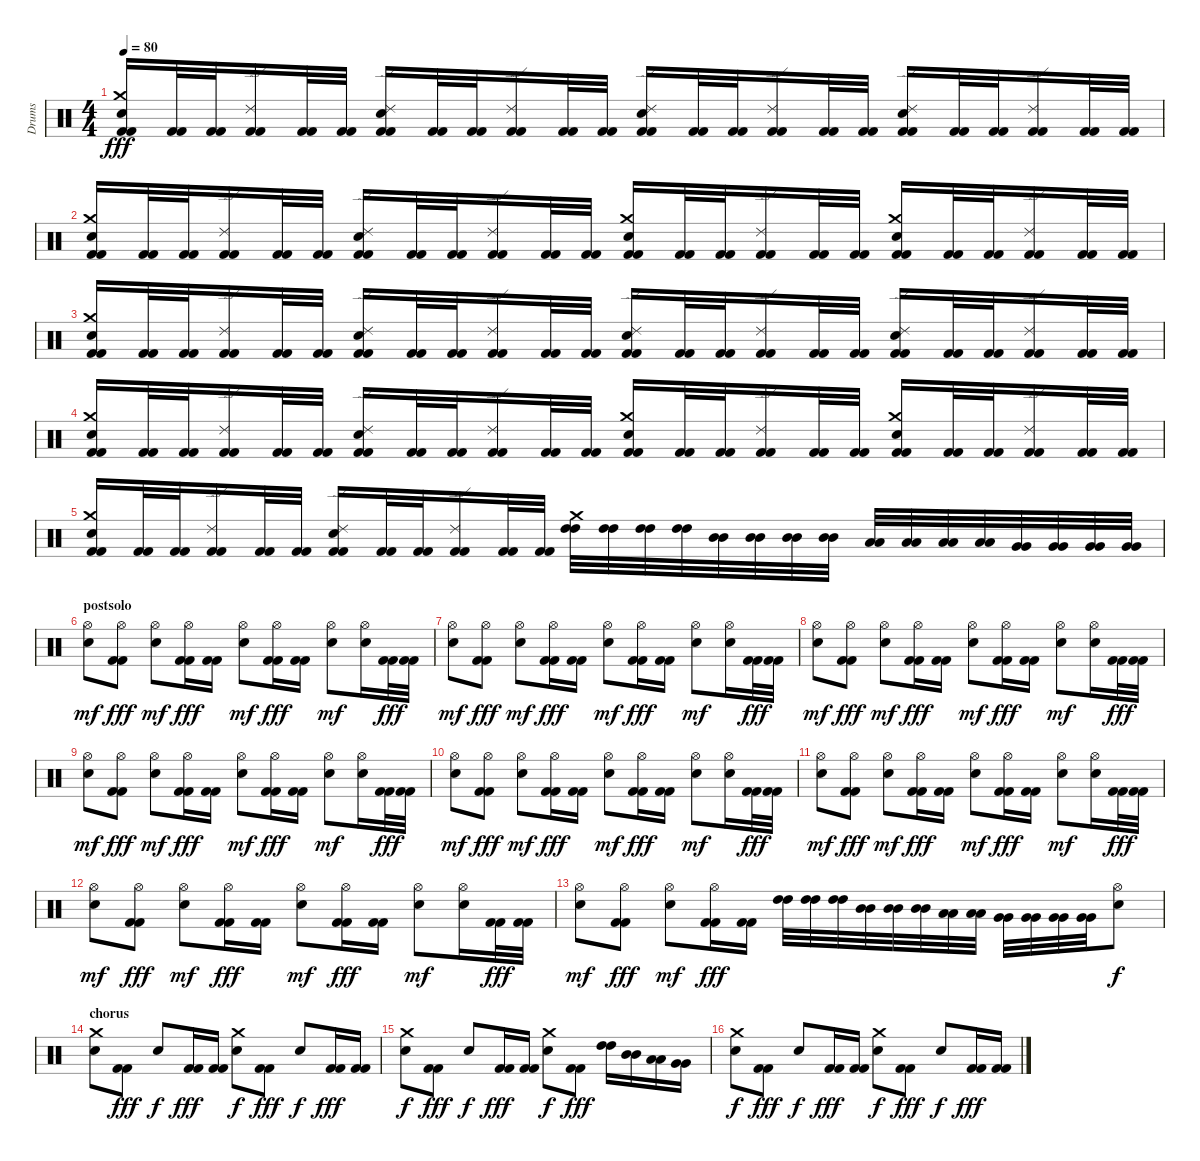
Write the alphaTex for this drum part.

\track ("Drums" "Drums") {instrument percussion}
\staff {score}
\articulation defaults
\ts (4 4)
\tempo 80
\clef neutral
\ks c
("Kick (hit) 2" "Kick (hit) 2" "Crash medium (hit)" "Electric Snare (hit)").16{dy fff} ("Kick (hit) 2" "Kick (hit) 2").32 ("Kick (hit) 2" "Kick (hit) 2").32 ("Kick (hit) 2" "Kick (hit) 2" "Ride (edge) 2").16 ("Kick (hit) 2" "Kick (hit) 2").32 ("Kick (hit) 2" "Kick (hit) 2").32 ("Kick (hit) 2" "Kick (hit) 2" "Ride (edge) 2" "Snare (hit) 2").16 ("Kick (hit) 2" "Kick (hit) 2").32 ("Kick (hit) 2" "Kick (hit) 2").32 ("Kick (hit) 2" "Kick (hit) 2" "Ride (edge) 2").16 ("Kick (hit) 2" "Kick (hit) 2").32 ("Kick (hit) 2" "Kick (hit) 2").32 ("Kick (hit) 2" "Kick (hit) 2" "Ride (edge) 2" "Snare (hit) 2").16 ("Kick (hit) 2" "Kick (hit) 2").32 ("Kick (hit) 2" "Kick (hit) 2").32 ("Kick (hit) 2" "Kick (hit) 2" "Ride (edge) 2").16 ("Kick (hit) 2" "Kick (hit) 2").32 ("Kick (hit) 2" "Kick (hit) 2").32 ("Kick (hit) 2" "Kick (hit) 2" "Ride (edge) 2" "Snare (hit) 2").16 ("Kick (hit) 2" "Kick (hit) 2").32 ("Kick (hit) 2" "Kick (hit) 2").32 ("Kick (hit) 2" "Kick (hit) 2" "Ride (edge) 2").16 ("Kick (hit) 2" "Kick (hit) 2").32 ("Kick (hit) 2" "Kick (hit) 2").32 |
("Kick (hit) 2" "Kick (hit) 2" "Crash medium (hit)" "Electric Snare (hit)").16 ("Kick (hit) 2" "Kick (hit) 2").32 ("Kick (hit) 2" "Kick (hit) 2").32 ("Kick (hit) 2" "Kick (hit) 2" "Ride (edge) 2").16 ("Kick (hit) 2" "Kick (hit) 2").32 ("Kick (hit) 2" "Kick (hit) 2").32 ("Kick (hit) 2" "Kick (hit) 2" "Ride (edge) 2" "Snare (hit) 2").16 ("Kick (hit) 2" "Kick (hit) 2").32 ("Kick (hit) 2" "Kick (hit) 2").32 ("Kick (hit) 2" "Kick (hit) 2" "Ride (edge) 2").16 ("Kick (hit) 2" "Kick (hit) 2").32 ("Kick (hit) 2" "Kick (hit) 2").32 ("Kick (hit) 2" "Kick (hit) 2" "Crash medium (hit)" "Electric Snare (hit)").16 ("Kick (hit) 2" "Kick (hit) 2").32 ("Kick (hit) 2" "Kick (hit) 2").32 ("Kick (hit) 2" "Kick (hit) 2" "Ride (edge) 2").16 ("Kick (hit) 2" "Kick (hit) 2").32 ("Kick (hit) 2" "Kick (hit) 2").32 ("Kick (hit) 2" "Kick (hit) 2" "Crash medium (hit)" "Electric Snare (hit)").16 ("Kick (hit) 2" "Kick (hit) 2").32 ("Kick (hit) 2" "Kick (hit) 2").32 ("Kick (hit) 2" "Kick (hit) 2" "Ride (edge) 2").16 ("Kick (hit) 2" "Kick (hit) 2").32 ("Kick (hit) 2" "Kick (hit) 2").32 |
("Kick (hit) 2" "Kick (hit) 2" "Crash medium (hit)" "Electric Snare (hit)").16 ("Kick (hit) 2" "Kick (hit) 2").32 ("Kick (hit) 2" "Kick (hit) 2").32 ("Kick (hit) 2" "Kick (hit) 2" "Ride (edge) 2").16 ("Kick (hit) 2" "Kick (hit) 2").32 ("Kick (hit) 2" "Kick (hit) 2").32 ("Kick (hit) 2" "Kick (hit) 2" "Ride (edge) 2" "Snare (hit) 2").16 ("Kick (hit) 2" "Kick (hit) 2").32 ("Kick (hit) 2" "Kick (hit) 2").32 ("Kick (hit) 2" "Kick (hit) 2" "Ride (edge) 2").16 ("Kick (hit) 2" "Kick (hit) 2").32 ("Kick (hit) 2" "Kick (hit) 2").32 ("Kick (hit) 2" "Kick (hit) 2" "Ride (edge) 2" "Snare (hit) 2").16 ("Kick (hit) 2" "Kick (hit) 2").32 ("Kick (hit) 2" "Kick (hit) 2").32 ("Kick (hit) 2" "Kick (hit) 2" "Ride (edge) 2").16 ("Kick (hit) 2" "Kick (hit) 2").32 ("Kick (hit) 2" "Kick (hit) 2").32 ("Kick (hit) 2" "Kick (hit) 2" "Ride (edge) 2" "Snare (hit) 2").16 ("Kick (hit) 2" "Kick (hit) 2").32 ("Kick (hit) 2" "Kick (hit) 2").32 ("Kick (hit) 2" "Kick (hit) 2" "Ride (edge) 2").16 ("Kick (hit) 2" "Kick (hit) 2").32 ("Kick (hit) 2" "Kick (hit) 2").32 |
("Kick (hit) 2" "Kick (hit) 2" "Crash medium (hit)" "Electric Snare (hit)").16 ("Kick (hit) 2" "Kick (hit) 2").32 ("Kick (hit) 2" "Kick (hit) 2").32 ("Kick (hit) 2" "Kick (hit) 2" "Ride (edge) 2").16 ("Kick (hit) 2" "Kick (hit) 2").32 ("Kick (hit) 2" "Kick (hit) 2").32 ("Kick (hit) 2" "Kick (hit) 2" "Ride (edge) 2" "Snare (hit) 2").16 ("Kick (hit) 2" "Kick (hit) 2").32 ("Kick (hit) 2" "Kick (hit) 2").32 ("Kick (hit) 2" "Kick (hit) 2" "Ride (edge) 2").16 ("Kick (hit) 2" "Kick (hit) 2").32 ("Kick (hit) 2" "Kick (hit) 2").32 ("Kick (hit) 2" "Kick (hit) 2" "Crash medium (hit)" "Electric Snare (hit)").16 ("Kick (hit) 2" "Kick (hit) 2").32 ("Kick (hit) 2" "Kick (hit) 2").32 ("Kick (hit) 2" "Kick (hit) 2" "Ride (edge) 2").16 ("Kick (hit) 2" "Kick (hit) 2").32 ("Kick (hit) 2" "Kick (hit) 2").32 ("Kick (hit) 2" "Kick (hit) 2" "Crash medium (hit)" "Electric Snare (hit)").16 ("Kick (hit) 2" "Kick (hit) 2").32 ("Kick (hit) 2" "Kick (hit) 2").32 ("Kick (hit) 2" "Kick (hit) 2" "Ride (edge) 2").16 ("Kick (hit) 2" "Kick (hit) 2").32 ("Kick (hit) 2" "Kick (hit) 2").32 |
("Kick (hit) 2" "Kick (hit) 2" "Crash medium (hit)" "Electric Snare (hit)").16 ("Kick (hit) 2" "Kick (hit) 2").32 ("Kick (hit) 2" "Kick (hit) 2").32 ("Kick (hit) 2" "Kick (hit) 2" "Ride (edge) 2").16 ("Kick (hit) 2" "Kick (hit) 2").32 ("Kick (hit) 2" "Kick (hit) 2").32 ("Kick (hit) 2" "Kick (hit) 2" "Ride (edge) 2" "Snare (hit) 2").16 ("Kick (hit) 2" "Kick (hit) 2").32 ("Kick (hit) 2" "Kick (hit) 2").32 ("Kick (hit) 2" "Kick (hit) 2" "Ride (edge) 2").16 ("Kick (hit) 2" "Kick (hit) 2").32 ("Kick (hit) 2" "Kick (hit) 2").32 ("High Tom (hit)" "High Tom (hit)" "Crash medium (hit)").32 ("High Tom (hit)" "High Tom (hit)").32 ("High Tom (hit)" "High Tom (hit)").32 ("High Tom (hit)" "High Tom (hit)").32 ("Mid Tom (hit)" "Mid Tom (hit)").32 ("Mid Tom (hit)" "Mid Tom (hit)").32 ("Mid Tom (hit)" "Mid Tom (hit)").32 ("Mid Tom (hit)" "Mid Tom (hit)").32 ("Low Tom (hit)" "Low Tom (hit)").32 ("Low Tom (hit)" "Low Tom (hit)").32 ("Low Tom (hit)" "Low Tom (hit)").32 ("Low Tom (hit)" "Low Tom (hit)").32 ("Very Low Tom (hit)" "Very Low Tom (hit)").32 ("Very Low Tom (hit)" "Very Low Tom (hit)").32 ("Very Low Tom (hit)" "Very Low Tom (hit)").32 ("Very Low Tom (hit)" "Very Low Tom (hit)").32 |
\section ("" "postsolo")
("Hi-Hat (open)" "Electric Snare (hit)").8{dy mf} ("Hi-Hat (open)" "Kick (hit) 2" "Kick (hit) 2").8{dy fff} ("Hi-Hat (open)" "Electric Snare (hit)").8{dy mf} ("Hi-Hat (open)" "Kick (hit) 2" "Kick (hit) 2").16{dy fff} ("Kick (hit) 2" "Kick (hit) 2").16 ("Hi-Hat (open)" "Electric Snare (hit)").8{dy mf} ("Hi-Hat (open)" "Kick (hit) 2" "Kick (hit) 2").16{dy fff} ("Kick (hit) 2" "Kick (hit) 2").16 ("Hi-Hat (open)" "Electric Snare (hit)").8{dy mf} ("Hi-Hat (open)" "Electric Snare (hit)").16 ("Kick (hit) 2" "Kick (hit) 2").32{dy fff} ("Kick (hit) 2" "Kick (hit) 2").32 |
("Hi-Hat (open)" "Electric Snare (hit)").8{dy mf} ("Hi-Hat (open)" "Kick (hit) 2" "Kick (hit) 2").8{dy fff} ("Hi-Hat (open)" "Electric Snare (hit)").8{dy mf} ("Hi-Hat (open)" "Kick (hit) 2" "Kick (hit) 2").16{dy fff} ("Kick (hit) 2" "Kick (hit) 2").16 ("Hi-Hat (open)" "Electric Snare (hit)").8{dy mf} ("Hi-Hat (open)" "Kick (hit) 2" "Kick (hit) 2").16{dy fff} ("Kick (hit) 2" "Kick (hit) 2").16 ("Hi-Hat (open)" "Electric Snare (hit)").8{dy mf} ("Hi-Hat (open)" "Electric Snare (hit)").16 ("Kick (hit) 2" "Kick (hit) 2").32{dy fff} ("Kick (hit) 2" "Kick (hit) 2").32 |
("Hi-Hat (open)" "Electric Snare (hit)").8{dy mf} ("Hi-Hat (open)" "Kick (hit) 2" "Kick (hit) 2").8{dy fff} ("Hi-Hat (open)" "Electric Snare (hit)").8{dy mf} ("Hi-Hat (open)" "Kick (hit) 2" "Kick (hit) 2").16{dy fff} ("Kick (hit) 2" "Kick (hit) 2").16 ("Hi-Hat (open)" "Electric Snare (hit)").8{dy mf} ("Hi-Hat (open)" "Kick (hit) 2" "Kick (hit) 2").16{dy fff} ("Kick (hit) 2" "Kick (hit) 2").16 ("Hi-Hat (open)" "Electric Snare (hit)").8{dy mf} ("Hi-Hat (open)" "Electric Snare (hit)").16 ("Kick (hit) 2" "Kick (hit) 2").32{dy fff} ("Kick (hit) 2" "Kick (hit) 2").32 |
("Hi-Hat (open)" "Electric Snare (hit)").8{dy mf} ("Hi-Hat (open)" "Kick (hit) 2" "Kick (hit) 2").8{dy fff} ("Hi-Hat (open)" "Electric Snare (hit)").8{dy mf} ("Hi-Hat (open)" "Kick (hit) 2" "Kick (hit) 2").16{dy fff} ("Kick (hit) 2" "Kick (hit) 2").16 ("Hi-Hat (open)" "Electric Snare (hit)").8{dy mf} ("Hi-Hat (open)" "Kick (hit) 2" "Kick (hit) 2").16{dy fff} ("Kick (hit) 2" "Kick (hit) 2").16 ("Hi-Hat (open)" "Electric Snare (hit)").8{dy mf} ("Hi-Hat (open)" "Electric Snare (hit)").16 ("Kick (hit) 2" "Kick (hit) 2").32{dy fff} ("Kick (hit) 2" "Kick (hit) 2").32 |
("Hi-Hat (open)" "Electric Snare (hit)").8{dy mf} ("Hi-Hat (open)" "Kick (hit) 2" "Kick (hit) 2").8{dy fff} ("Hi-Hat (open)" "Electric Snare (hit)").8{dy mf} ("Hi-Hat (open)" "Kick (hit) 2" "Kick (hit) 2").16{dy fff} ("Kick (hit) 2" "Kick (hit) 2").16 ("Hi-Hat (open)" "Electric Snare (hit)").8{dy mf} ("Hi-Hat (open)" "Kick (hit) 2" "Kick (hit) 2").16{dy fff} ("Kick (hit) 2" "Kick (hit) 2").16 ("Hi-Hat (open)" "Electric Snare (hit)").8{dy mf} ("Hi-Hat (open)" "Electric Snare (hit)").16 ("Kick (hit) 2" "Kick (hit) 2").32{dy fff} ("Kick (hit) 2" "Kick (hit) 2").32 |
("Hi-Hat (open)" "Electric Snare (hit)").8{dy mf} ("Hi-Hat (open)" "Kick (hit) 2" "Kick (hit) 2").8{dy fff} ("Hi-Hat (open)" "Electric Snare (hit)").8{dy mf} ("Hi-Hat (open)" "Kick (hit) 2" "Kick (hit) 2").16{dy fff} ("Kick (hit) 2" "Kick (hit) 2").16 ("Hi-Hat (open)" "Electric Snare (hit)").8{dy mf} ("Hi-Hat (open)" "Kick (hit) 2" "Kick (hit) 2").16{dy fff} ("Kick (hit) 2" "Kick (hit) 2").16 ("Hi-Hat (open)" "Electric Snare (hit)").8{dy mf} ("Hi-Hat (open)" "Electric Snare (hit)").16 ("Kick (hit) 2" "Kick (hit) 2").32{dy fff} ("Kick (hit) 2" "Kick (hit) 2").32 |
("Hi-Hat (open)" "Electric Snare (hit)").8{dy mf} ("Hi-Hat (open)" "Kick (hit) 2" "Kick (hit) 2").8{dy fff} ("Hi-Hat (open)" "Electric Snare (hit)").8{dy mf} ("Hi-Hat (open)" "Kick (hit) 2" "Kick (hit) 2").16{dy fff} ("Kick (hit) 2" "Kick (hit) 2").16 ("Hi-Hat (open)" "Electric Snare (hit)").8{dy mf} ("Hi-Hat (open)" "Kick (hit) 2" "Kick (hit) 2").16{dy fff} ("Kick (hit) 2" "Kick (hit) 2").16 ("Hi-Hat (open)" "Electric Snare (hit)").8{dy mf} ("Hi-Hat (open)" "Electric Snare (hit)").16 ("Kick (hit) 2" "Kick (hit) 2").32{dy fff} ("Kick (hit) 2" "Kick (hit) 2").32 |
("Hi-Hat (open)" "Electric Snare (hit)").8{dy mf} ("Hi-Hat (open)" "Kick (hit) 2" "Kick (hit) 2").8{dy fff} ("Hi-Hat (open)" "Electric Snare (hit)").8{dy mf} ("Hi-Hat (open)" "Kick (hit) 2" "Kick (hit) 2").16{dy fff} ("Kick (hit) 2" "Kick (hit) 2").16 ("High Tom (hit)" "High Tom (hit)").32 ("High Tom (hit)" "High Tom (hit)").32 ("High Tom (hit)" "High Tom (hit)").32 ("Mid Tom (hit)" "Mid Tom (hit)").32 ("Mid Tom (hit)" "Mid Tom (hit)").32 ("Mid Tom (hit)" "Mid Tom (hit)").32 ("Low Tom (hit)" "Low Tom (hit)").32 ("Low Tom (hit)" "Low Tom (hit)").32 ("Very Low Tom (hit)" "Very Low Tom (hit)").32 ("Very Low Tom (hit)" "Very Low Tom (hit)").32 ("Very Low Tom (hit)" "Very Low Tom (hit)").32 ("Very Low Tom (hit)" "Very Low Tom (hit)").32 ("Electric Snare (hit)" "Hi-Hat (open)").8{dy f} |
\section ("" "chorus")
("Electric Snare (hit)" "Crash medium (hit)").8 ("Kick (hit) 2" "Kick (hit) 2").8{dy fff} "Electric Snare (hit)".8{dy f} ("Kick (hit) 2" "Kick (hit) 2").16{dy fff} ("Kick (hit) 2" "Kick (hit) 2").16 ("Electric Snare (hit)" "Crash medium (hit)").8{dy f} ("Kick (hit) 2" "Kick (hit) 2").8{dy fff} "Electric Snare (hit)".8{dy f} ("Kick (hit) 2" "Kick (hit) 2").16{dy fff} ("Kick (hit) 2" "Kick (hit) 2").16 |
("Electric Snare (hit)" "Crash medium (hit)").8{dy f} ("Kick (hit) 2" "Kick (hit) 2").8{dy fff} "Electric Snare (hit)".8{dy f} ("Kick (hit) 2" "Kick (hit) 2").16{dy fff} ("Kick (hit) 2" "Kick (hit) 2").16 ("Electric Snare (hit)" "Crash medium (hit)").8{dy f} ("Kick (hit) 2" "Kick (hit) 2").8{dy fff} ("High Tom (hit)" "High Tom (hit)").16 ("Mid Tom (hit)" "Mid Tom (hit)").16 ("Low Tom (hit)" "Low Tom (hit)").16 ("Very Low Tom (hit)" "Very Low Tom (hit)").16 |
("Electric Snare (hit)" "Crash medium (hit)").8{dy f} ("Kick (hit) 2" "Kick (hit) 2").8{dy fff} "Electric Snare (hit)".8{dy f} ("Kick (hit) 2" "Kick (hit) 2").16{dy fff} ("Kick (hit) 2" "Kick (hit) 2").16 ("Electric Snare (hit)" "Crash medium (hit)").8{dy f} ("Kick (hit) 2" "Kick (hit) 2").8{dy fff} "Electric Snare (hit)".8{dy f} ("Kick (hit) 2" "Kick (hit) 2").16{dy fff} ("Kick (hit) 2" "Kick (hit) 2").16
